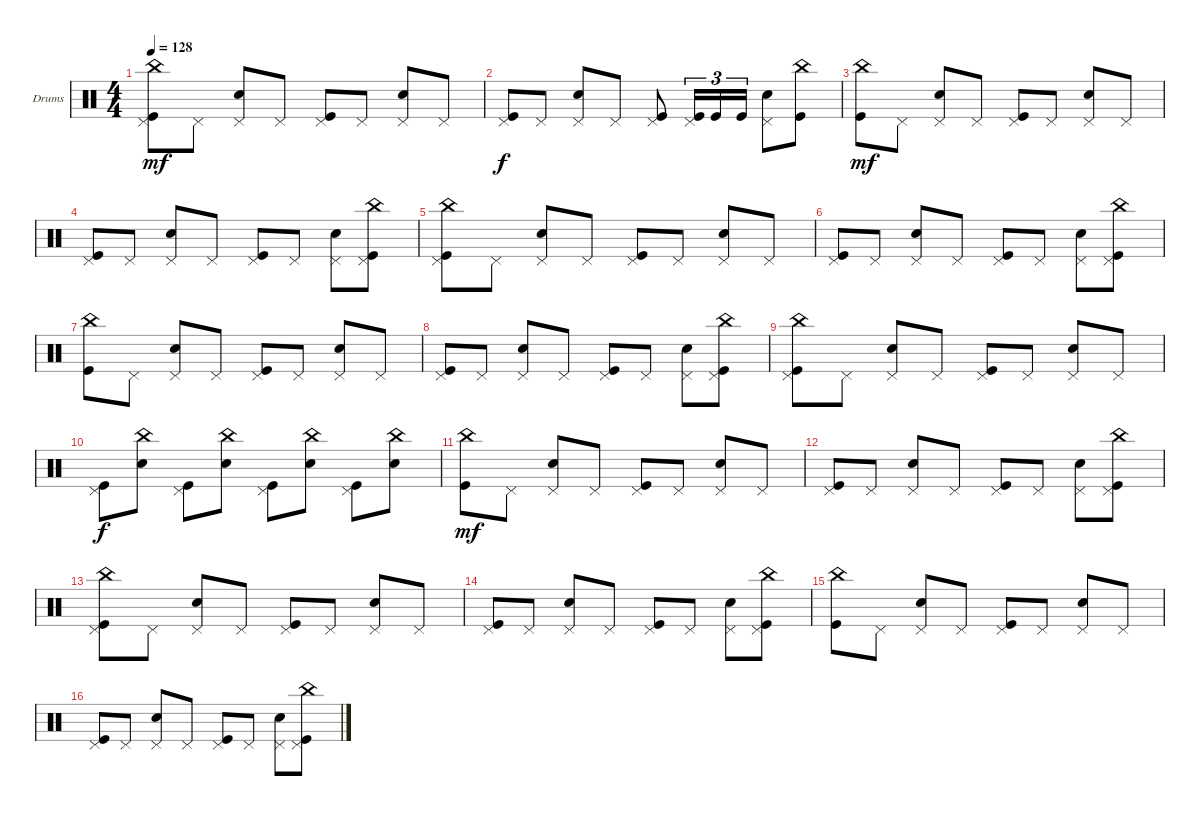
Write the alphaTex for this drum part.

\defaultSystemsLayout 4
\bracketExtendMode groupsimilarinstruments
\firstSystemTrackNameOrientation horizontal
\otherSystemsTrackNameOrientation horizontal
\track ("Drumkit" "Drums") {instrument percussion}
\staff {score}
\articulation defaults
\ts (4 4)
\tempo 128
\clef neutral
\ks c
("China (hit)" "Pedal Hi-Hat (hit)" "Kick (hit)").8{dy mf} "Pedal Hi-Hat (hit)".8 ("Pedal Hi-Hat (hit)" "Snare (hit) 2").8 "Pedal Hi-Hat (hit)".8 ("Pedal Hi-Hat (hit)" "Kick (hit)").8 "Pedal Hi-Hat (hit)".8 ("Pedal Hi-Hat (hit)" "Snare (hit) 2").8 "Pedal Hi-Hat (hit)".8 |
("Kick (hit)" "Pedal Hi-Hat (hit)").8{dy f} "Pedal Hi-Hat (hit)".8 ("Pedal Hi-Hat (hit)" "Snare (hit) 2").8 "Pedal Hi-Hat (hit)".8 ("Kick (hit)" "Pedal Hi-Hat (hit)").8 ("Kick (hit)" "Pedal Hi-Hat (hit)").16{tu (3 2)} "Kick (hit)".16{tu (3 2)} "Kick (hit)".16{tu (3 2)} ("Snare (hit) 2" "Pedal Hi-Hat (hit)").8 ("Kick (hit)" "China (hit)").8 |
("Kick (hit)" "China (hit)").8{dy mf} "Pedal Hi-Hat (hit)".8 ("Snare (hit) 2" "Pedal Hi-Hat (hit)").8 "Pedal Hi-Hat (hit)".8 ("Pedal Hi-Hat (hit)" "Kick (hit)").8 "Pedal Hi-Hat (hit)".8 ("Pedal Hi-Hat (hit)" "Snare (hit) 2").8 "Pedal Hi-Hat (hit)".8 |
("Kick (hit)" "Pedal Hi-Hat (hit)").8 "Pedal Hi-Hat (hit)".8 ("Pedal Hi-Hat (hit)" "Snare (hit) 2").8 "Pedal Hi-Hat (hit)".8 ("Pedal Hi-Hat (hit)" "Kick (hit)").8 "Pedal Hi-Hat (hit)".8 ("Pedal Hi-Hat (hit)" "Snare (hit) 2").8 ("Pedal Hi-Hat (hit)" "China (hit)" "Kick (hit)").8 |
("China (hit)" "Pedal Hi-Hat (hit)" "Kick (hit)").8 "Pedal Hi-Hat (hit)".8 ("Pedal Hi-Hat (hit)" "Snare (hit) 2").8 "Pedal Hi-Hat (hit)".8 ("Pedal Hi-Hat (hit)" "Kick (hit)").8 "Pedal Hi-Hat (hit)".8 ("Pedal Hi-Hat (hit)" "Snare (hit) 2").8 "Pedal Hi-Hat (hit)".8 |
("Kick (hit)" "Pedal Hi-Hat (hit)").8 "Pedal Hi-Hat (hit)".8 ("Pedal Hi-Hat (hit)" "Snare (hit) 2").8 "Pedal Hi-Hat (hit)".8 ("Pedal Hi-Hat (hit)" "Kick (hit)").8 "Pedal Hi-Hat (hit)".8 ("Pedal Hi-Hat (hit)" "Snare (hit) 2").8 ("Pedal Hi-Hat (hit)" "China (hit)" "Kick (hit)").8 |
("Kick (hit)" "China (hit)").8 "Pedal Hi-Hat (hit)".8 ("Snare (hit) 2" "Pedal Hi-Hat (hit)").8 "Pedal Hi-Hat (hit)".8 ("Pedal Hi-Hat (hit)" "Kick (hit)").8 "Pedal Hi-Hat (hit)".8 ("Pedal Hi-Hat (hit)" "Snare (hit) 2").8 "Pedal Hi-Hat (hit)".8 |
("Kick (hit)" "Pedal Hi-Hat (hit)").8 "Pedal Hi-Hat (hit)".8 ("Pedal Hi-Hat (hit)" "Snare (hit) 2").8 "Pedal Hi-Hat (hit)".8 ("Pedal Hi-Hat (hit)" "Kick (hit)").8 "Pedal Hi-Hat (hit)".8 ("Pedal Hi-Hat (hit)" "Snare (hit) 2").8 ("Pedal Hi-Hat (hit)" "China (hit)" "Kick (hit)").8 |
("China (hit)" "Pedal Hi-Hat (hit)" "Kick (hit)").8 "Pedal Hi-Hat (hit)".8 ("Pedal Hi-Hat (hit)" "Snare (hit) 2").8 "Pedal Hi-Hat (hit)".8 ("Pedal Hi-Hat (hit)" "Kick (hit)").8 "Pedal Hi-Hat (hit)".8 ("Pedal Hi-Hat (hit)" "Snare (hit) 2").8 "Pedal Hi-Hat (hit)".8 |
("Kick (hit)" "Pedal Hi-Hat (hit)").8{dy f} ("Snare (hit) 2" "China (hit)").8 ("Kick (hit)" "Pedal Hi-Hat (hit)").8 ("Snare (hit) 2" "China (hit)").8 ("Kick (hit)" "Pedal Hi-Hat (hit)").8 ("Snare (hit) 2" "China (hit)").8 ("Kick (hit)" "Pedal Hi-Hat (hit)").8 ("Snare (hit) 2" "China (hit)").8 |
("Kick (hit)" "China (hit)").8{dy mf} "Pedal Hi-Hat (hit)".8 ("Snare (hit) 2" "Pedal Hi-Hat (hit)").8 "Pedal Hi-Hat (hit)".8 ("Pedal Hi-Hat (hit)" "Kick (hit)").8 "Pedal Hi-Hat (hit)".8 ("Pedal Hi-Hat (hit)" "Snare (hit) 2").8 "Pedal Hi-Hat (hit)".8 |
("Kick (hit)" "Pedal Hi-Hat (hit)").8 "Pedal Hi-Hat (hit)".8 ("Pedal Hi-Hat (hit)" "Snare (hit) 2").8 "Pedal Hi-Hat (hit)".8 ("Pedal Hi-Hat (hit)" "Kick (hit)").8 "Pedal Hi-Hat (hit)".8 ("Pedal Hi-Hat (hit)" "Snare (hit) 2").8 ("Pedal Hi-Hat (hit)" "China (hit)" "Kick (hit)").8 |
("China (hit)" "Pedal Hi-Hat (hit)" "Kick (hit)").8 "Pedal Hi-Hat (hit)".8 ("Pedal Hi-Hat (hit)" "Snare (hit) 2").8 "Pedal Hi-Hat (hit)".8 ("Pedal Hi-Hat (hit)" "Kick (hit)").8 "Pedal Hi-Hat (hit)".8 ("Pedal Hi-Hat (hit)" "Snare (hit) 2").8 "Pedal Hi-Hat (hit)".8 |
("Kick (hit)" "Pedal Hi-Hat (hit)").8 "Pedal Hi-Hat (hit)".8 ("Pedal Hi-Hat (hit)" "Snare (hit) 2").8 "Pedal Hi-Hat (hit)".8 ("Pedal Hi-Hat (hit)" "Kick (hit)").8 "Pedal Hi-Hat (hit)".8 ("Pedal Hi-Hat (hit)" "Snare (hit) 2").8 ("Pedal Hi-Hat (hit)" "China (hit)" "Kick (hit)").8 |
("Kick (hit)" "China (hit)").8 "Pedal Hi-Hat (hit)".8 ("Snare (hit) 2" "Pedal Hi-Hat (hit)").8 "Pedal Hi-Hat (hit)".8 ("Pedal Hi-Hat (hit)" "Kick (hit)").8 "Pedal Hi-Hat (hit)".8 ("Pedal Hi-Hat (hit)" "Snare (hit) 2").8 "Pedal Hi-Hat (hit)".8 |
("Kick (hit)" "Pedal Hi-Hat (hit)").8 "Pedal Hi-Hat (hit)".8 ("Pedal Hi-Hat (hit)" "Snare (hit) 2").8 "Pedal Hi-Hat (hit)".8 ("Pedal Hi-Hat (hit)" "Kick (hit)").8 "Pedal Hi-Hat (hit)".8 ("Pedal Hi-Hat (hit)" "Snare (hit) 2").8 ("Pedal Hi-Hat (hit)" "China (hit)" "Kick (hit)").8
